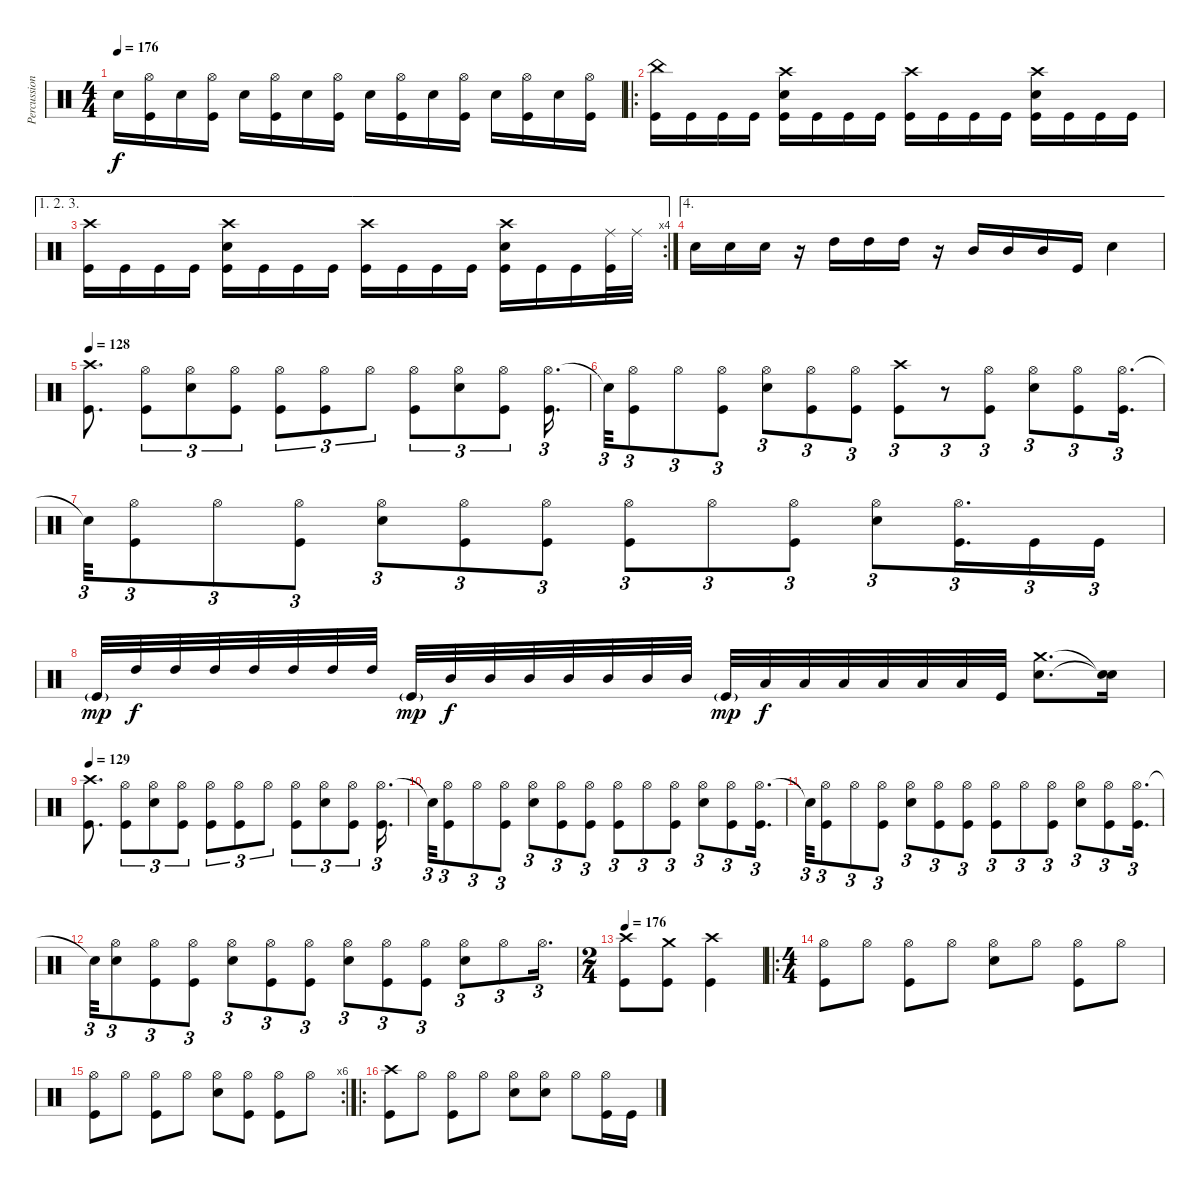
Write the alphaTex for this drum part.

\track ("Percussions" "Percussion") {instrument percussion}
\staff {score}
\articulation defaults
\ts (4 4)
\tempo 176
\clef neutral
\ks c "Snare (hit) 2".16{dy f}
("Hi-Hat (open)" "Kick (hit)").16 "Snare (hit) 2".16 ("Hi-Hat (open)" "Kick (hit)").16 "Snare (hit) 2".16 ("Hi-Hat (open)" "Kick (hit)").16 "Snare (hit) 2".16 ("Hi-Hat (open)" "Kick (hit)").16 "Snare (hit) 2".16 ("Hi-Hat (open)" "Kick (hit)").16 "Snare (hit) 2".16 ("Hi-Hat (open)" "Kick (hit)").16 "Snare (hit) 2".16 ("Hi-Hat (open)" "Kick (hit)").16 "Snare (hit) 2".16 ("Hi-Hat (open)" "Kick (hit)").16 |
\ro
("China (hit)" "Kick (hit)").16 "Kick (hit)".16 "Kick (hit)".16 "Kick (hit)".16 ("Crash high (hit)" "Snare (hit) 2" "Kick (hit)").16 "Kick (hit)".16 "Kick (hit)".16 "Kick (hit)".16 ("Crash high (hit)" "Kick (hit)").16 "Kick (hit)".16 "Kick (hit)".16 "Kick (hit)".16 ("Crash high (hit)" "Snare (hit) 2" "Kick (hit)").16 "Kick (hit)".16 "Kick (hit)".16 "Kick (hit)".16 |
\ae (1 2 3)
\rc 4
("Crash high (hit)" "Kick (hit)").16 "Kick (hit)".16 "Kick (hit)".16 "Kick (hit)".16 ("Crash high (hit)" "Snare (hit) 2" "Kick (hit)").16 "Kick (hit)".16 "Kick (hit)".16 "Kick (hit)".16 ("Crash high (hit)" "Kick (hit)").16 "Kick (hit)".16 "Kick (hit)".16 "Kick (hit)".16 ("Crash high (hit)" "Snare (hit) 2" "Kick (hit)").16 "Kick (hit)".16 "Kick (hit)".16 ("Ride (middle)" "Kick (hit)").32 "Ride (middle)".32 |
\ae 4 "Snare (hit) 2".16 "Snare (hit) 2".16 "Snare (hit) 2".16
r.16 "High Tom (hit)".16 "High Tom (hit)".16 "High Tom (hit)".16 r.16 "Mid Tom (hit)".16 "Mid Tom (hit)".16 "Mid Tom (hit)".16 "Kick (hit)".16 "Snare (hit) 2".4 |
\tempo 128
("Crash high (hit)" "Kick (hit)").8{d} ("Hi-Hat (open)" "Kick (hit)").8{tu (3 2)} ("Hi-Hat (open)" "Snare (hit) 2").8{tu (3 2)} ("Hi-Hat (open)" "Kick (hit)").8{tu (3 2)} ("Hi-Hat (open)" "Kick (hit)").8{tu (3 2)} ("Hi-Hat (open)" "Kick (hit)").8{tu (3 2)} "Hi-Hat (open)".8{tu (3 2)} ("Hi-Hat (open)" "Kick (hit)").8{tu (3 2)} ("Hi-Hat (open)" "Snare (hit) 2").8{tu (3 2)} ("Hi-Hat (open)" "Kick (hit)").8{tu (3 2)} ("Hi-Hat (open)" "Kick (hit)").16{d tu (3 2)} |
"Snare (hit)"{t}.32{tu (3 2)} ("Hi-Hat (open)" "Kick (hit)").8{tu (3 2)} "Hi-Hat (open)".8{tu (3 2)} ("Hi-Hat (open)" "Kick (hit)").8{tu (3 2)} ("Hi-Hat (open)" "Snare (hit) 2").8{tu (3 2)} ("Hi-Hat (open)" "Kick (hit)").8{tu (3 2)} ("Hi-Hat (open)" "Kick (hit)").8{tu (3 2)} ("Crash high (hit)" "Kick (hit)").8{tu (3 2)} r.8{tu (3 2)} ("Hi-Hat (open)" "Kick (hit)").8{tu (3 2)} ("Hi-Hat (open)" "Snare (hit) 2").8{tu (3 2)} ("Hi-Hat (open)" "Kick (hit)").8{tu (3 2)} ("Hi-Hat (open)" "Kick (hit)").16{d tu (3 2)} |
"Snare (hit)"{t}.32{tu (3 2)} ("Hi-Hat (open)" "Kick (hit)").8{tu (3 2)} "Hi-Hat (open)".8{tu (3 2)} ("Hi-Hat (open)" "Kick (hit)").8{tu (3 2)} ("Hi-Hat (open)" "Snare (hit) 2").8{tu (3 2)} ("Hi-Hat (open)" "Kick (hit)").8{tu (3 2)} ("Hi-Hat (open)" "Kick (hit)").8{tu (3 2)} ("Hi-Hat (open)" "Kick (hit)").8{tu (3 2)} "Hi-Hat (open)".8{tu (3 2)} ("Hi-Hat (open)" "Kick (hit)").8{tu (3 2)} ("Hi-Hat (open)" "Snare (hit) 2").8{tu (3 2)} ("Hi-Hat (open)" "Kick (hit)").16{d tu (3 2)} "Kick (hit)".16{tu (3 2)} "Kick (hit)".16{tu (3 2)} |
"Kick (hit)"{g}.32{dy mp} "High Tom (hit)".32{dy f} "High Tom (hit)".32 "High Tom (hit)".32 "High Tom (hit)".32 "High Tom (hit)".32 "High Tom (hit)".32 "High Tom (hit)".32 "Kick (hit)"{g}.32{dy mp} "Mid Tom (hit)".32{dy f} "Mid Tom (hit)".32 "Mid Tom (hit)".32 "Mid Tom (hit)".32 "Mid Tom (hit)".32 "Mid Tom (hit)".32 "Mid Tom (hit)".32 "Kick (hit)"{g}.32{dy mp} "Low Tom (hit)".32{dy f} "Low Tom (hit)".32 "Low Tom (hit)".32 "Low Tom (hit)".32 "Low Tom (hit)".32 "Low Tom (hit)".32 "Kick (hit)".32 ("Crash medium (hit)" "Snare (hit) 2").8{d} ("Snare (hit)"{t} "Snare (hit)"{t}).16 |
\tempo 129
("Crash high (hit)" "Kick (hit)").8{d} ("Hi-Hat (open)" "Kick (hit)").8{tu (3 2)} ("Hi-Hat (open)" "Snare (hit) 2").8{tu (3 2)} ("Hi-Hat (open)" "Kick (hit)").8{tu (3 2)} ("Hi-Hat (open)" "Kick (hit)").8{tu (3 2)} ("Hi-Hat (open)" "Kick (hit)").8{tu (3 2)} "Hi-Hat (open)".8{tu (3 2)} ("Hi-Hat (open)" "Kick (hit)").8{tu (3 2)} ("Hi-Hat (open)" "Snare (hit) 2").8{tu (3 2)} ("Hi-Hat (open)" "Kick (hit)").8{tu (3 2)} ("Hi-Hat (open)" "Kick (hit)").16{d tu (3 2)} |
"Snare (hit)"{t}.32{tu (3 2)} ("Hi-Hat (open)" "Kick (hit)").8{tu (3 2)} "Hi-Hat (open)".8{tu (3 2)} ("Hi-Hat (open)" "Kick (hit)").8{tu (3 2)} ("Hi-Hat (open)" "Snare (hit) 2").8{tu (3 2)} ("Hi-Hat (open)" "Kick (hit)").8{tu (3 2)} ("Hi-Hat (open)" "Kick (hit)").8{tu (3 2)} ("Hi-Hat (open)" "Kick (hit)").8{tu (3 2)} "Hi-Hat (open)".8{tu (3 2)} ("Hi-Hat (open)" "Kick (hit)").8{tu (3 2)} ("Hi-Hat (open)" "Snare (hit) 2").8{tu (3 2)} ("Hi-Hat (open)" "Kick (hit)").8{tu (3 2)} ("Hi-Hat (open)" "Kick (hit)").16{d tu (3 2)} |
"Snare (hit)"{t}.32{tu (3 2)} ("Hi-Hat (open)" "Kick (hit)").8{tu (3 2)} "Hi-Hat (open)".8{tu (3 2)} ("Hi-Hat (open)" "Kick (hit)").8{tu (3 2)} ("Hi-Hat (open)" "Snare (hit) 2").8{tu (3 2)} ("Hi-Hat (open)" "Kick (hit)").8{tu (3 2)} ("Hi-Hat (open)" "Kick (hit)").8{tu (3 2)} ("Hi-Hat (open)" "Kick (hit)").8{tu (3 2)} "Hi-Hat (open)".8{tu (3 2)} ("Hi-Hat (open)" "Kick (hit)").8{tu (3 2)} ("Hi-Hat (open)" "Snare (hit) 2").8{tu (3 2)} ("Hi-Hat (open)" "Kick (hit)").8{tu (3 2)} ("Hi-Hat (open)" "Kick (hit)").16{d tu (3 2)} |
"Snare (hit)"{t}.32{tu (3 2)} ("Hi-Hat (open)" "Snare (hit) 2").8{tu (3 2)} ("Hi-Hat (open)" "Kick (hit)").8{tu (3 2)} ("Hi-Hat (open)" "Kick (hit)").8{tu (3 2)} ("Hi-Hat (open)" "Snare (hit) 2").8{tu (3 2)} ("Hi-Hat (open)" "Kick (hit)").8{tu (3 2)} ("Hi-Hat (open)" "Kick (hit)").8{tu (3 2)} ("Hi-Hat (open)" "Snare (hit) 2").8{tu (3 2)} ("Hi-Hat (open)" "Kick (hit)").8{tu (3 2)} ("Hi-Hat (open)" "Kick (hit)").8{tu (3 2)} ("Hi-Hat (open)" "Snare (hit) 2").8{tu (3 2)} "Hi-Hat (open)".8{tu (3 2)} "Hi-Hat (open)".16{d tu (3 2)} |
\ts (2 4)
\tempo 176
("Crash high (hit)" "Kick (hit)").8 ("Crash medium (hit)" "Kick (hit)").8 ("Crash high (hit)" "Kick (hit)").4 |
\ro
\ts (4 4)
("Hi-Hat (open)" "Kick (hit)").8 "Hi-Hat (open)".8 ("Hi-Hat (open)" "Kick (hit)").8 "Hi-Hat (open)".8 ("Hi-Hat (open)" "Snare (hit) 2").8 "Hi-Hat (open)".8 ("Hi-Hat (open)" "Kick (hit)").8 "Hi-Hat (open)".8 |
\rc 6
("Hi-Hat (open)" "Kick (hit)").8 "Hi-Hat (open)".8 ("Hi-Hat (open)" "Kick (hit)").8 "Hi-Hat (open)".8 ("Hi-Hat (open)" "Snare (hit) 2").8 ("Hi-Hat (open)" "Kick (hit)").8 ("Hi-Hat (open)" "Kick (hit)").8 "Hi-Hat (open)".8 |
\ro
("Crash high (hit)" "Kick (hit)").8 "Hi-Hat (open)".8 ("Hi-Hat (open)" "Kick (hit)").8 "Hi-Hat (open)".8 ("Hi-Hat (open)" "Snare (hit) 2").8 ("Hi-Hat (open)" "Snare (hit) 2").8 "Hi-Hat (open)".8 ("Hi-Hat (open)" "Kick (hit)").16 "Kick (hit)".16
